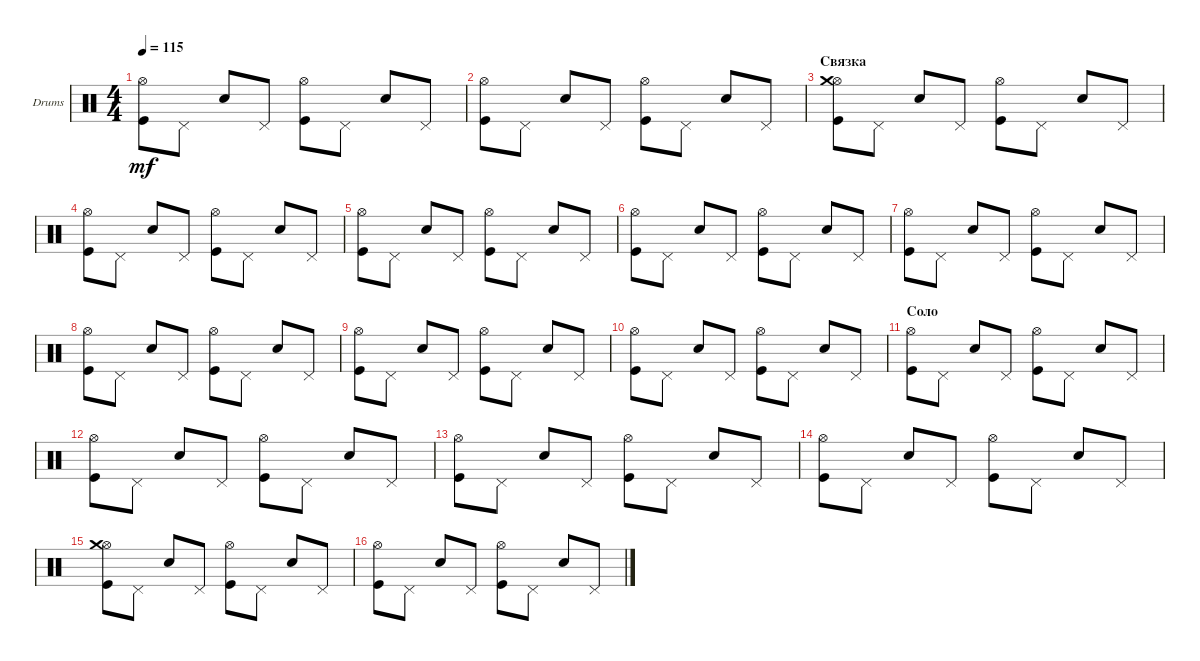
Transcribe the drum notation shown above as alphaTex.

\defaultSystemsLayout 4
\bracketExtendMode groupsimilarinstruments
\firstSystemTrackNameOrientation horizontal
\otherSystemsTrackNameOrientation horizontal
\track ("Е.Кулаков Ударные" "Drums") {instrument percussion}
\staff {score}
\articulation defaults
\ts (4 4)
\tempo 115
\clef neutral
\scale
0.333333
\ks c
("Kick (hit)" "Hi-Hat (open)").8{dy mf} "Pedal Hi-Hat (hit)".8 "Snare (hit) 2".8 "Pedal Hi-Hat (hit)".8 ("Kick (hit)" "Hi-Hat (open)").8 "Pedal Hi-Hat (hit)".8 "Snare (hit) 2".8 "Pedal Hi-Hat (hit)".8 |
\scale
0.333333 ("Kick (hit)" "Hi-Hat (open)").8 "Pedal Hi-Hat (hit)".8 "Snare (hit) 2".8 "Pedal Hi-Hat (hit)".8 ("Kick (hit)" "Hi-Hat (open)").8 "Pedal Hi-Hat (hit)".8 "Snare (hit) 2".8 "Pedal Hi-Hat (hit)".8 |
\section ("" "Связка")
\scale
0.333333 ("Kick (hit)" "Hi-Hat (open)" "Crash medium (hit)").8 "Pedal Hi-Hat (hit)".8 "Snare (hit) 2".8 "Pedal Hi-Hat (hit)".8 ("Kick (hit)" "Hi-Hat (open)").8 "Pedal Hi-Hat (hit)".8 "Snare (hit) 2".8 "Pedal Hi-Hat (hit)".8 |
\scale
0.333333 ("Kick (hit)" "Hi-Hat (open)").8 "Pedal Hi-Hat (hit)".8 "Snare (hit) 2".8 "Pedal Hi-Hat (hit)".8 ("Kick (hit)" "Hi-Hat (open)").8 "Pedal Hi-Hat (hit)".8 "Snare (hit) 2".8 "Pedal Hi-Hat (hit)".8 |
\scale
0.333333 ("Kick (hit)" "Hi-Hat (open)").8 "Pedal Hi-Hat (hit)".8 "Snare (hit) 2".8 "Pedal Hi-Hat (hit)".8 ("Kick (hit)" "Hi-Hat (open)").8 "Pedal Hi-Hat (hit)".8 "Snare (hit) 2".8 "Pedal Hi-Hat (hit)".8 |
\scale
0.333333 ("Kick (hit)" "Hi-Hat (open)").8 "Pedal Hi-Hat (hit)".8 "Snare (hit) 2".8 "Pedal Hi-Hat (hit)".8 ("Kick (hit)" "Hi-Hat (open)").8 "Pedal Hi-Hat (hit)".8 "Snare (hit) 2".8 "Pedal Hi-Hat (hit)".8 |
\scale
0.333333 ("Kick (hit)" "Hi-Hat (open)").8 "Pedal Hi-Hat (hit)".8 "Snare (hit) 2".8 "Pedal Hi-Hat (hit)".8 ("Kick (hit)" "Hi-Hat (open)").8 "Pedal Hi-Hat (hit)".8 "Snare (hit) 2".8 "Pedal Hi-Hat (hit)".8 |
\scale
0.333333 ("Kick (hit)" "Hi-Hat (open)").8 "Pedal Hi-Hat (hit)".8 "Snare (hit) 2".8 "Pedal Hi-Hat (hit)".8 ("Kick (hit)" "Hi-Hat (open)").8 "Pedal Hi-Hat (hit)".8 "Snare (hit) 2".8 "Pedal Hi-Hat (hit)".8 |
\scale
0.333333 ("Kick (hit)" "Hi-Hat (open)").8 "Pedal Hi-Hat (hit)".8 "Snare (hit) 2".8 "Pedal Hi-Hat (hit)".8 ("Kick (hit)" "Hi-Hat (open)").8 "Pedal Hi-Hat (hit)".8 "Snare (hit) 2".8 "Pedal Hi-Hat (hit)".8 |
\scale
0.333333 ("Kick (hit)" "Hi-Hat (open)").8 "Pedal Hi-Hat (hit)".8 "Snare (hit) 2".8 "Pedal Hi-Hat (hit)".8 ("Kick (hit)" "Hi-Hat (open)").8 "Pedal Hi-Hat (hit)".8 "Snare (hit) 2".8 "Pedal Hi-Hat (hit)".8 |
\section ("" "Соло")
\scale
0.333333 ("Kick (hit)" "Hi-Hat (open)").8 "Pedal Hi-Hat (hit)".8 "Snare (hit) 2".8 "Pedal Hi-Hat (hit)".8 ("Kick (hit)" "Hi-Hat (open)").8 "Pedal Hi-Hat (hit)".8 "Snare (hit) 2".8 "Pedal Hi-Hat (hit)".8 |
\scale
0.333333 ("Kick (hit)" "Hi-Hat (open)").8 "Pedal Hi-Hat (hit)".8 "Snare (hit) 2".8 "Pedal Hi-Hat (hit)".8 ("Kick (hit)" "Hi-Hat (open)").8 "Pedal Hi-Hat (hit)".8 "Snare (hit) 2".8 "Pedal Hi-Hat (hit)".8 |
\scale
0.333333 ("Kick (hit)" "Hi-Hat (open)").8 "Pedal Hi-Hat (hit)".8 "Snare (hit) 2".8 "Pedal Hi-Hat (hit)".8 ("Kick (hit)" "Hi-Hat (open)").8 "Pedal Hi-Hat (hit)".8 "Snare (hit) 2".8 "Pedal Hi-Hat (hit)".8 |
\scale
0.333333 ("Kick (hit)" "Hi-Hat (open)").8 "Pedal Hi-Hat (hit)".8 "Snare (hit) 2".8 "Pedal Hi-Hat (hit)".8 ("Kick (hit)" "Hi-Hat (open)").8 "Pedal Hi-Hat (hit)".8 "Snare (hit) 2".8 "Pedal Hi-Hat (hit)".8 |
\scale
0.333333 ("Kick (hit)" "Hi-Hat (open)" "Crash medium (hit)").8 "Pedal Hi-Hat (hit)".8 "Snare (hit) 2".8 "Pedal Hi-Hat (hit)".8 ("Kick (hit)" "Hi-Hat (open)").8 "Pedal Hi-Hat (hit)".8 "Snare (hit) 2".8 "Pedal Hi-Hat (hit)".8 |
("Kick (hit)" "Hi-Hat (open)").8 "Pedal Hi-Hat (hit)".8 "Snare (hit) 2".8 "Pedal Hi-Hat (hit)".8 ("Kick (hit)" "Hi-Hat (open)").8 "Pedal Hi-Hat (hit)".8 "Snare (hit) 2".8 "Pedal Hi-Hat (hit)".8
